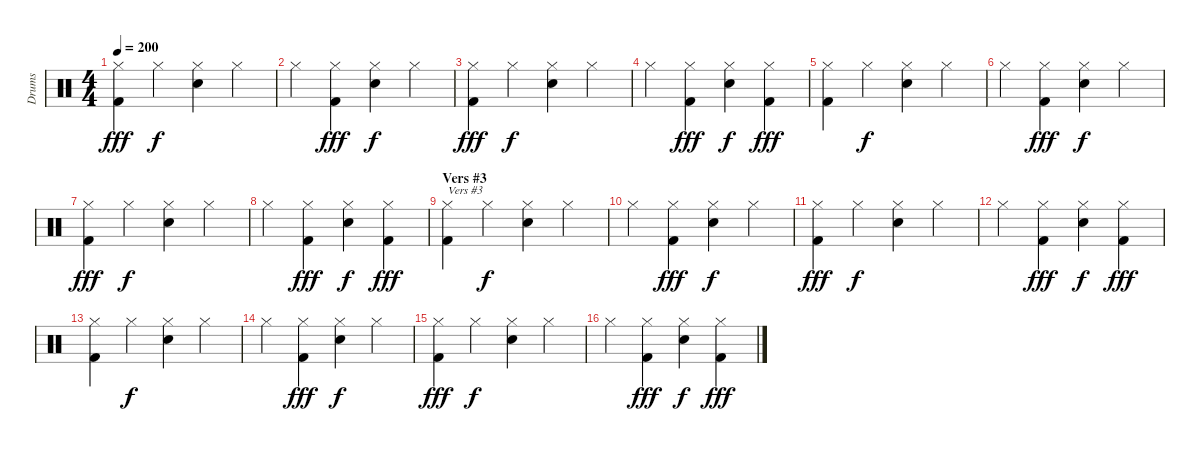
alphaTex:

\track ("Drums" "Drums") {instrument percussion}
\staff {score}
\articulation defaults
\ts (4 4)
\tempo 200
\clef neutral
\ks c
("Hi-Hat (closed)" "Kick (hit) 2").4{dy fff} "Hi-Hat (closed)".4{dy f} ("Hi-Hat (closed)" "Electric Snare (hit)").4 "Hi-Hat (closed)".4 |
"Hi-Hat (closed)".4 ("Hi-Hat (closed)" "Kick (hit) 2").4{dy fff} ("Hi-Hat (closed)" "Electric Snare (hit)").4{dy f} "Hi-Hat (closed)".4 |
("Hi-Hat (closed)" "Kick (hit) 2").4{dy fff} "Hi-Hat (closed)".4{dy f} ("Hi-Hat (closed)" "Electric Snare (hit)").4 "Hi-Hat (closed)".4 |
"Hi-Hat (closed)".4 ("Hi-Hat (closed)" "Kick (hit) 2").4{dy fff} ("Hi-Hat (closed)" "Electric Snare (hit)").4{dy f} ("Hi-Hat (closed)" "Kick (hit) 2").4{dy fff} |
("Hi-Hat (closed)" "Kick (hit) 2").4 "Hi-Hat (closed)".4{dy f} ("Hi-Hat (closed)" "Electric Snare (hit)").4 "Hi-Hat (closed)".4 |
"Hi-Hat (closed)".4 ("Hi-Hat (closed)" "Kick (hit) 2").4{dy fff} ("Hi-Hat (closed)" "Electric Snare (hit)").4{dy f} "Hi-Hat (closed)".4 |
("Hi-Hat (closed)" "Kick (hit) 2").4{dy fff} "Hi-Hat (closed)".4{dy f} ("Hi-Hat (closed)" "Electric Snare (hit)").4 "Hi-Hat (closed)".4 |
"Hi-Hat (closed)".4 ("Hi-Hat (closed)" "Kick (hit) 2").4{dy fff} ("Hi-Hat (closed)" "Electric Snare (hit)").4{dy f} ("Hi-Hat (closed)" "Kick (hit) 2").4{dy fff} |
\section ("" "Vers #3")
("Hi-Hat (closed)" "Kick (hit) 2").4{txt "Vers #3"} "Hi-Hat (closed)".4{dy f} ("Hi-Hat (closed)" "Electric Snare (hit)").4 "Hi-Hat (closed)".4 |
"Hi-Hat (closed)".4 ("Hi-Hat (closed)" "Kick (hit) 2").4{dy fff} ("Hi-Hat (closed)" "Electric Snare (hit)").4{dy f} "Hi-Hat (closed)".4 |
("Hi-Hat (closed)" "Kick (hit) 2").4{dy fff} "Hi-Hat (closed)".4{dy f} ("Hi-Hat (closed)" "Electric Snare (hit)").4 "Hi-Hat (closed)".4 |
"Hi-Hat (closed)".4 ("Hi-Hat (closed)" "Kick (hit) 2").4{dy fff} ("Hi-Hat (closed)" "Electric Snare (hit)").4{dy f} ("Hi-Hat (closed)" "Kick (hit) 2").4{dy fff} |
("Hi-Hat (closed)" "Kick (hit) 2").4 "Hi-Hat (closed)".4{dy f} ("Hi-Hat (closed)" "Electric Snare (hit)").4 "Hi-Hat (closed)".4 |
"Hi-Hat (closed)".4 ("Hi-Hat (closed)" "Kick (hit) 2").4{dy fff} ("Hi-Hat (closed)" "Electric Snare (hit)").4{dy f} "Hi-Hat (closed)".4 |
("Hi-Hat (closed)" "Kick (hit) 2").4{dy fff} "Hi-Hat (closed)".4{dy f} ("Hi-Hat (closed)" "Electric Snare (hit)").4 "Hi-Hat (closed)".4 |
"Hi-Hat (closed)".4 ("Hi-Hat (closed)" "Kick (hit) 2").4{dy fff} ("Hi-Hat (closed)" "Electric Snare (hit)").4{dy f} ("Hi-Hat (closed)" "Kick (hit) 2").4{dy fff}
